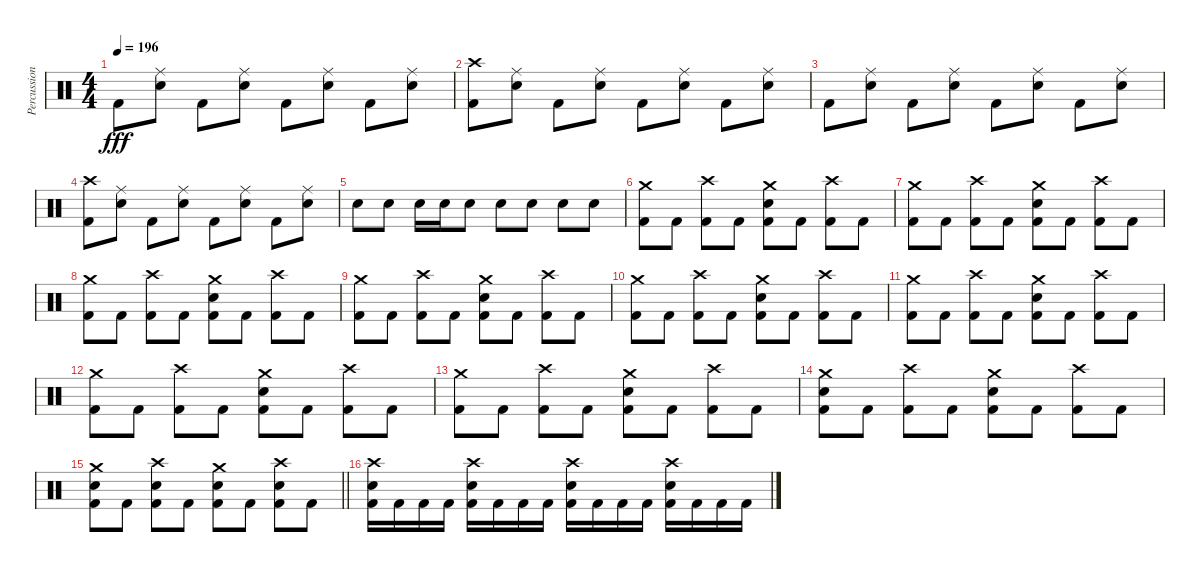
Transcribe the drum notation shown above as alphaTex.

\track ("Percussion" "Percussion") {instrument percussion}
\staff {score}
\articulation defaults
\ts (4 4)
\tempo 196
\clef neutral
\ks c "Kick (hit) 2".8{dy fff}
("Ride (middle)" "Electric Snare (hit)").8 "Kick (hit) 2".8 ("Ride (middle)" "Electric Snare (hit)").8 "Kick (hit) 2".8 ("Ride (middle)" "Electric Snare (hit)").8 "Kick (hit) 2".8 ("Ride (middle)" "Electric Snare (hit)").8 |
("Crash high (hit)" "Kick (hit) 2").8 ("Ride (middle)" "Electric Snare (hit)").8 "Kick (hit) 2".8 ("Ride (middle)" "Electric Snare (hit)").8 "Kick (hit) 2".8 ("Ride (middle)" "Electric Snare (hit)").8 "Kick (hit) 2".8 ("Ride (middle)" "Electric Snare (hit)").8 |
"Kick (hit) 2".8 ("Ride (middle)" "Electric Snare (hit)").8 "Kick (hit) 2".8 ("Ride (middle)" "Electric Snare (hit)").8 "Kick (hit) 2".8 ("Ride (middle)" "Electric Snare (hit)").8 "Kick (hit) 2".8 ("Ride (middle)" "Electric Snare (hit)").8 |
("Crash high (hit)" "Kick (hit) 2").8 ("Ride (middle)" "Electric Snare (hit)").8 "Kick (hit) 2".8 ("Ride (middle)" "Electric Snare (hit)").8 "Kick (hit) 2".8 ("Ride (middle)" "Electric Snare (hit)").8 "Kick (hit) 2".8 ("Ride (middle)" "Electric Snare (hit)").8 |
"Electric Snare (hit)".8 "Electric Snare (hit)".8 "Electric Snare (hit)".16 "Electric Snare (hit)".16 "Electric Snare (hit)".8 "Electric Snare (hit)".8 "Electric Snare (hit)".8 "Electric Snare (hit)".8 "Electric Snare (hit)".8 |
("Crash medium (hit)" "Kick (hit) 2").8 "Kick (hit) 2".8 ("Crash high (hit)" "Kick (hit) 2").8 "Kick (hit) 2".8 ("Crash medium (hit)" "Electric Snare (hit)" "Kick (hit) 2").8 "Kick (hit) 2".8 ("Crash high (hit)" "Kick (hit) 2").8 "Kick (hit) 2".8 |
("Crash medium (hit)" "Kick (hit) 2").8 "Kick (hit) 2".8 ("Crash high (hit)" "Kick (hit) 2").8 "Kick (hit) 2".8 ("Crash medium (hit)" "Electric Snare (hit)" "Kick (hit) 2").8 "Kick (hit) 2".8 ("Crash high (hit)" "Kick (hit) 2").8 "Kick (hit) 2".8 |
("Crash medium (hit)" "Kick (hit) 2").8 "Kick (hit) 2".8 ("Crash high (hit)" "Kick (hit) 2").8 "Kick (hit) 2".8 ("Crash medium (hit)" "Electric Snare (hit)" "Kick (hit) 2").8 "Kick (hit) 2".8 ("Crash high (hit)" "Kick (hit) 2").8 "Kick (hit) 2".8 |
("Crash medium (hit)" "Kick (hit) 2").8 "Kick (hit) 2".8 ("Crash high (hit)" "Kick (hit) 2").8 "Kick (hit) 2".8 ("Crash medium (hit)" "Electric Snare (hit)" "Kick (hit) 2").8 "Kick (hit) 2".8 ("Crash high (hit)" "Kick (hit) 2").8 "Kick (hit) 2".8 |
("Crash medium (hit)" "Kick (hit) 2").8 "Kick (hit) 2".8 ("Crash high (hit)" "Kick (hit) 2").8 "Kick (hit) 2".8 ("Crash medium (hit)" "Electric Snare (hit)" "Kick (hit) 2").8 "Kick (hit) 2".8 ("Crash high (hit)" "Kick (hit) 2").8 "Kick (hit) 2".8 |
("Crash medium (hit)" "Kick (hit) 2").8 "Kick (hit) 2".8 ("Crash high (hit)" "Kick (hit) 2").8 "Kick (hit) 2".8 ("Crash medium (hit)" "Electric Snare (hit)" "Kick (hit) 2").8 "Kick (hit) 2".8 ("Crash high (hit)" "Kick (hit) 2").8 "Kick (hit) 2".8 |
("Crash medium (hit)" "Kick (hit) 2").8 "Kick (hit) 2".8 ("Crash high (hit)" "Kick (hit) 2").8 "Kick (hit) 2".8 ("Crash medium (hit)" "Electric Snare (hit)" "Kick (hit) 2").8 "Kick (hit) 2".8 ("Crash high (hit)" "Kick (hit) 2").8 "Kick (hit) 2".8 |
("Crash medium (hit)" "Kick (hit) 2").8 "Kick (hit) 2".8 ("Crash high (hit)" "Kick (hit) 2").8 "Kick (hit) 2".8 ("Crash medium (hit)" "Electric Snare (hit)" "Kick (hit) 2").8 "Kick (hit) 2".8 ("Crash high (hit)" "Kick (hit) 2").8 "Kick (hit) 2".8 |
("Crash medium (hit)" "Electric Snare (hit)" "Kick (hit) 2").8 "Kick (hit) 2".8 ("Crash high (hit)" "Kick (hit) 2").8 "Kick (hit) 2".8 ("Crash medium (hit)" "Electric Snare (hit)" "Kick (hit) 2").8 "Kick (hit) 2".8 ("Crash high (hit)" "Kick (hit) 2").8 "Kick (hit) 2".8 |
\barLineRight lightlight
("Crash medium (hit)" "Electric Snare (hit)" "Kick (hit) 2").8 "Kick (hit) 2".8 ("Crash high (hit)" "Electric Snare (hit)" "Kick (hit) 2").8 "Kick (hit) 2".8 ("Crash medium (hit)" "Electric Snare (hit)" "Kick (hit) 2").8 "Kick (hit) 2".8 ("Crash high (hit)" "Electric Snare (hit)" "Kick (hit) 2").8 "Kick (hit) 2".8 |
("Crash high (hit)" "Electric Snare (hit)" "Kick (hit) 2").16 "Kick (hit) 2".16 "Kick (hit) 2".16 "Kick (hit) 2".16 ("Crash high (hit)" "Electric Snare (hit)" "Kick (hit) 2").16 "Kick (hit) 2".16 "Kick (hit) 2".16 "Kick (hit) 2".16 ("Crash high (hit)" "Electric Snare (hit)" "Kick (hit) 2").16 "Kick (hit) 2".16 "Kick (hit) 2".16 "Kick (hit) 2".16 ("Crash high (hit)" "Electric Snare (hit)" "Kick (hit) 2").16 "Kick (hit) 2".16 "Kick (hit) 2".16 "Kick (hit) 2".16
